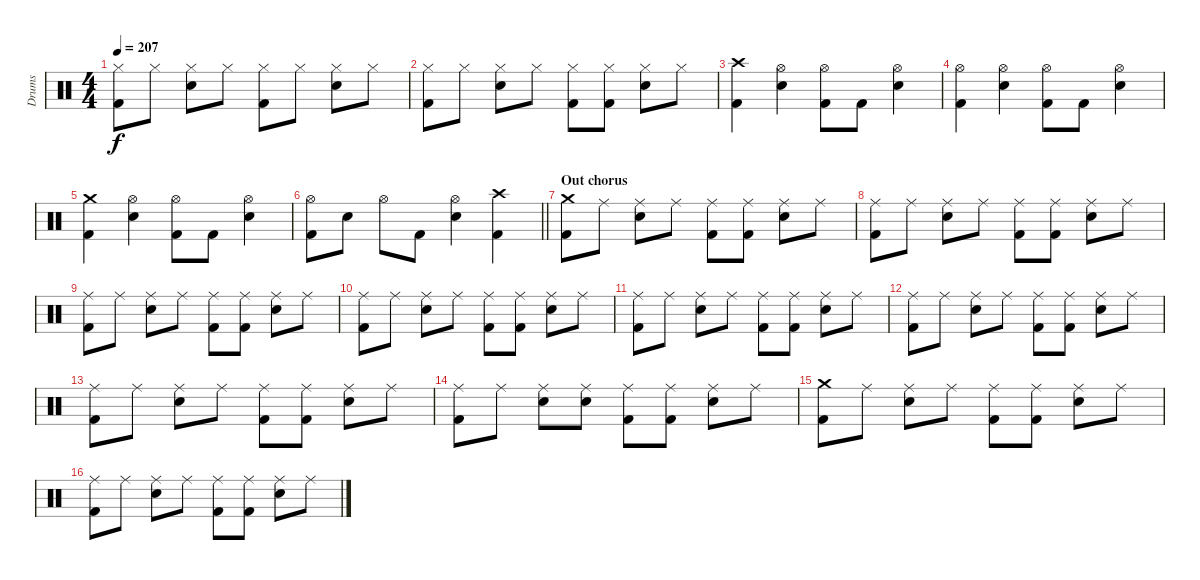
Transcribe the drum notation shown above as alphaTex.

\track ("Drums" "Drums") {instrument percussion}
\staff {score}
\articulation defaults
\ts (4 4)
\tempo 207
\clef neutral
\ks c
("Hi-Hat (closed)" "Kick (hit) 2").8{dy f} "Hi-Hat (closed)".8 ("Hi-Hat (closed)" "Electric Snare (hit)").8 "Hi-Hat (closed)".8 ("Hi-Hat (closed)" "Kick (hit) 2").8 "Hi-Hat (closed)".8 ("Hi-Hat (closed)" "Electric Snare (hit)").8 "Hi-Hat (closed)".8 |
("Hi-Hat (closed)" "Kick (hit) 2").8 "Hi-Hat (closed)".8 ("Hi-Hat (closed)" "Electric Snare (hit)").8 "Hi-Hat (closed)".8 ("Hi-Hat (closed)" "Kick (hit) 2").8 ("Hi-Hat (closed)" "Kick (hit) 2").8 ("Hi-Hat (closed)" "Electric Snare (hit)").8 "Hi-Hat (closed)".8 |
("Crash high (hit)" "Kick (hit) 2").4 ("Hi-Hat (open)" "Electric Snare (hit)").4 ("Hi-Hat (open)" "Kick (hit) 2").8 "Kick (hit) 2".8 ("Hi-Hat (open)" "Electric Snare (hit)").4 |
("Hi-Hat (open)" "Kick (hit) 2").4 ("Hi-Hat (open)" "Electric Snare (hit)").4 ("Hi-Hat (open)" "Kick (hit) 2").8 "Kick (hit) 2".8 ("Hi-Hat (open)" "Electric Snare (hit)").4 |
("Crash medium (hit)" "Kick (hit) 2").4 ("Hi-Hat (open)" "Electric Snare (hit)").4 ("Hi-Hat (open)" "Kick (hit) 2").8 "Kick (hit) 2".8 ("Hi-Hat (open)" "Electric Snare (hit)").4 |
\barLineRight lightlight
("Hi-Hat (open)" "Kick (hit) 2").8 "Electric Snare (hit)".8 "Hi-Hat (open)".8 "Kick (hit) 2".8 ("Hi-Hat (open)" "Electric Snare (hit)").4 ("Crash high (hit)" "Kick (hit) 2").4 |
\section ("" "Out chorus")
("Crash medium (hit)" "Kick (hit) 2").8 "Ride (middle)".8 ("Ride (middle)" "Electric Snare (hit)").8 "Ride (middle)".8 ("Ride (middle)" "Kick (hit) 2").8 ("Ride (middle)" "Kick (hit) 2").8 ("Ride (middle)" "Electric Snare (hit)").8 "Ride (middle)".8 |
("Ride (middle)" "Kick (hit) 2").8 "Ride (middle)".8 ("Ride (middle)" "Electric Snare (hit)").8 "Ride (middle)".8 ("Ride (middle)" "Kick (hit) 2").8 ("Ride (middle)" "Kick (hit) 2").8 ("Ride (middle)" "Electric Snare (hit)").8 "Ride (middle)".8 |
("Ride (middle)" "Kick (hit) 2").8 "Ride (middle)".8 ("Ride (middle)" "Electric Snare (hit)").8 "Ride (middle)".8 ("Ride (middle)" "Kick (hit) 2").8 ("Ride (middle)" "Kick (hit) 2").8 ("Ride (middle)" "Electric Snare (hit)").8 "Ride (middle)".8 |
("Ride (middle)" "Kick (hit) 2").8 "Ride (middle)".8 ("Ride (middle)" "Electric Snare (hit)").8 "Ride (middle)".8 ("Ride (middle)" "Kick (hit) 2").8 ("Ride (middle)" "Kick (hit) 2").8 ("Ride (middle)" "Electric Snare (hit)").8 "Ride (middle)".8 |
("Ride (middle)" "Kick (hit) 2").8 "Ride (middle)".8 ("Ride (middle)" "Electric Snare (hit)").8 "Ride (middle)".8 ("Ride (middle)" "Kick (hit) 2").8 ("Ride (middle)" "Kick (hit) 2").8 ("Ride (middle)" "Electric Snare (hit)").8 "Ride (middle)".8 |
("Ride (middle)" "Kick (hit) 2").8 "Ride (middle)".8 ("Ride (middle)" "Electric Snare (hit)").8 "Ride (middle)".8 ("Ride (middle)" "Kick (hit) 2").8 ("Ride (middle)" "Kick (hit) 2").8 ("Ride (middle)" "Electric Snare (hit)").8 "Ride (middle)".8 |
("Ride (middle)" "Kick (hit) 2").8 "Ride (middle)".8 ("Ride (middle)" "Electric Snare (hit)").8 "Ride (middle)".8 ("Ride (middle)" "Kick (hit) 2").8 ("Ride (middle)" "Kick (hit) 2").8 ("Ride (middle)" "Electric Snare (hit)").8 "Ride (middle)".8 |
("Ride (middle)" "Kick (hit) 2").8 "Ride (middle)".8 ("Ride (middle)" "Electric Snare (hit)").8 ("Ride (middle)" "Electric Snare (hit)").8 ("Ride (middle)" "Kick (hit) 2").8 ("Ride (middle)" "Kick (hit) 2").8 ("Ride (middle)" "Electric Snare (hit)").8 "Ride (middle)".8 |
("Crash medium (hit)" "Kick (hit) 2").8 "Ride (middle)".8 ("Ride (middle)" "Electric Snare (hit)").8 "Ride (middle)".8 ("Ride (middle)" "Kick (hit) 2").8 ("Ride (middle)" "Kick (hit) 2").8 ("Ride (middle)" "Electric Snare (hit)").8 "Ride (middle)".8 |
("Ride (middle)" "Kick (hit) 2").8 "Ride (middle)".8 ("Ride (middle)" "Electric Snare (hit)").8 "Ride (middle)".8 ("Ride (middle)" "Kick (hit) 2").8 ("Ride (middle)" "Kick (hit) 2").8 ("Ride (middle)" "Electric Snare (hit)").8 "Ride (middle)".8
